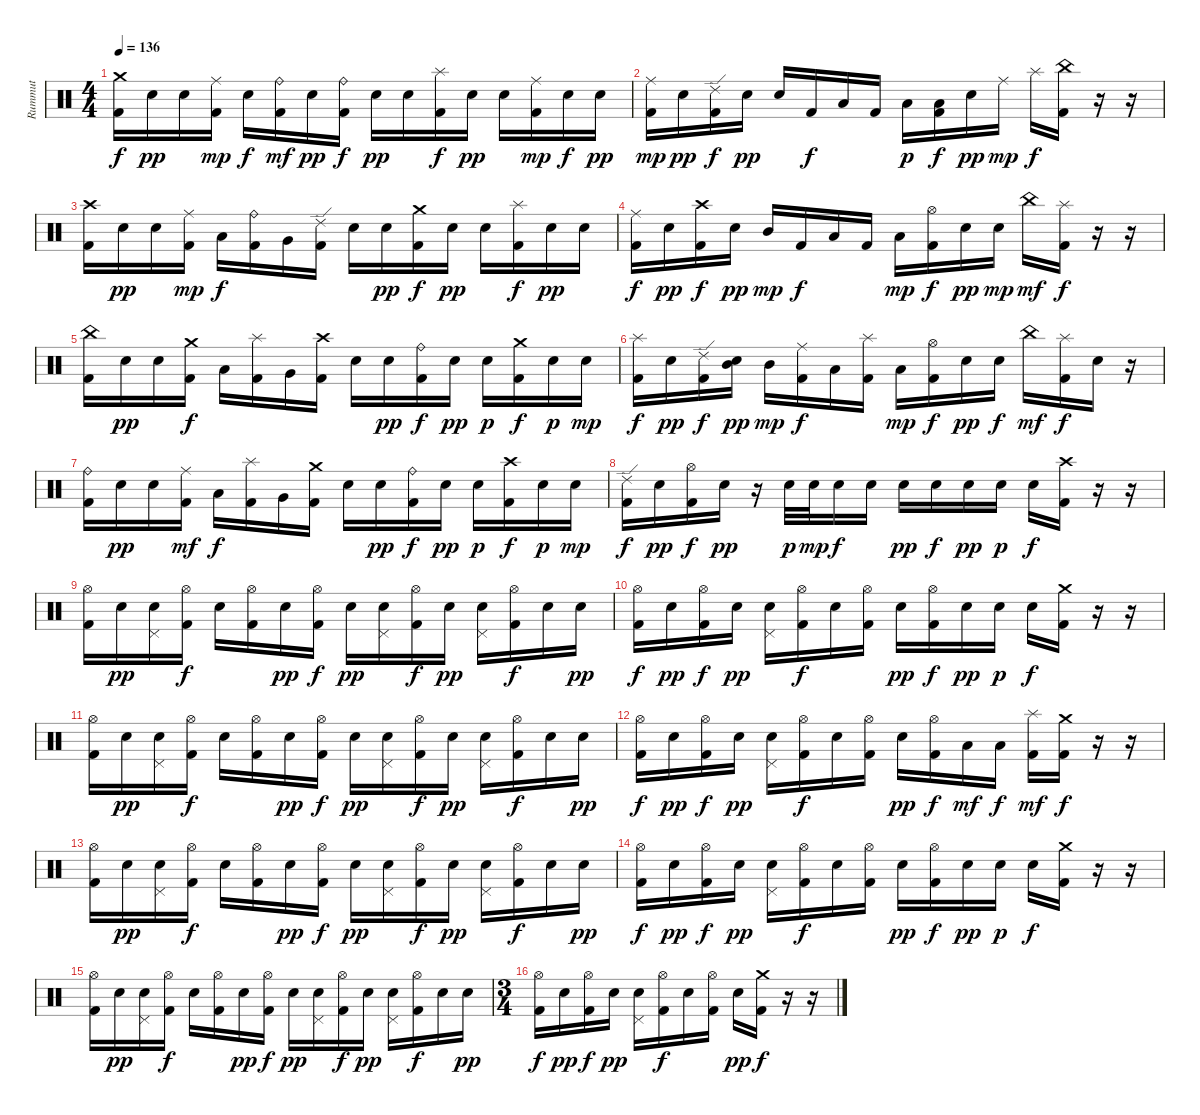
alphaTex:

\track ("Rummut" "Rummut") {instrument percussion}
\staff {score}
\articulation defaults
\ts (4 4)
\tempo 136
\clef neutral
\ks c
("Crash medium (hit)" "Kick (hit) 2").16{dy f} "Electric Snare (hit)".16{dy pp} "Electric Snare (hit)".16 ("Ride (middle)" "Kick (hit) 2").16{dy mp} "Electric Snare (hit)".16{dy f} ("Ride (bell)" "Kick (hit) 2").16{dy mf} "Electric Snare (hit)".16{dy pp} ("Ride (bell)" "Kick (hit) 2").16{dy f} "Electric Snare (hit)".16{dy pp} "Electric Snare (hit)".16 ("Splash (hit)" "Kick (hit) 2").16{dy f} "Electric Snare (hit)".16{dy pp} "Electric Snare (hit)".16 ("Ride (middle)" "Kick (hit) 2").16{dy mp} "Electric Snare (hit)".16{dy f} "Electric Snare (hit)".16{dy pp} |
("Ride (middle)" "Kick (hit) 2").16{dy mp} "Electric Snare (hit)".16{dy pp} ("Ride (edge) 2" "Kick (hit) 2").16{dy f} "Electric Snare (hit)".16{dy pp} "Electric Snare (hit)".16 "Kick (hit) 2".16{dy f} "Low Tom (hit)".16 "Kick (hit) 2".16 "Low Tom (hit)".16{dy p} ("Low Tom (hit)" "Kick (hit) 2").16{dy f} "Electric Snare (hit)".16{dy pp} "Ride (middle)".16{dy mp} "Splash (hit)".16{dy f} ("China (hit)" "Kick (hit) 2").16 r.16 r.16 |
("Crash high (hit)" "Kick (hit) 2").16 "Electric Snare (hit)".16{dy pp} "Electric Snare (hit)".16 ("Ride (middle)" "Kick (hit) 2").16{dy mp} "Low Tom (hit)".16{dy f} ("Ride (bell)" "Kick (hit) 2").16 "Very Low Tom (hit)".16 ("Ride (edge) 2" "Kick (hit) 2").16 "Electric Snare (hit)".16 "Electric Snare (hit)".16{dy pp} ("Crash medium (hit)" "Kick (hit) 2").16{dy f} "Electric Snare (hit)".16{dy pp} "Electric Snare (hit)".16 ("Splash (hit)" "Kick (hit) 2").16{dy f} "Electric Snare (hit)".16{dy pp} "Electric Snare (hit)".16 |
("Ride (middle)" "Kick (hit) 2").16{dy f} "Electric Snare (hit)".16{dy pp} ("Crash high (hit)" "Kick (hit) 2").16{dy f} "Electric Snare (hit)".16{dy pp} "Mid Tom (hit)".16{dy mp} "Kick (hit) 2".16{dy f} "Low Tom (hit)".16 "Kick (hit) 2".16 "Low Tom (hit)".16{dy mp} ("Hi-Hat (open)" "Kick (hit) 2").16{dy f} "Electric Snare (hit)".16{dy pp} "Electric Snare (hit)".16{dy mp} "China (hit)".16{dy mf} ("Splash (hit)" "Kick (hit) 2").16{dy f} r.16 r.16 |
("China (hit)" "Kick (hit) 2").16 "Electric Snare (hit)".16{dy pp} "Electric Snare (hit)".16 ("Crash medium (hit)" "Kick (hit) 2").16{dy f} "Low Tom (hit)".16 ("Splash (hit)" "Kick (hit) 2").16 "Very Low Tom (hit)".16 ("Crash high (hit)" "Kick (hit) 2").16 "Electric Snare (hit)".16 "Electric Snare (hit)".16{dy pp} ("Ride (bell)" "Kick (hit) 2").16{dy f} "Electric Snare (hit)".16{dy pp} "Electric Snare (hit)".16{dy p} ("Crash medium (hit)" "Kick (hit) 2").16{dy f} "Electric Snare (hit)".16{dy p} "Electric Snare (hit)".16{dy mp} |
("Splash (hit)" "Kick (hit) 2").16{dy f} "Electric Snare (hit)".16{dy pp} ("Ride (edge) 2" "Kick (hit) 2").16{dy f} ("Mid Tom (hit)" "Electric Snare (hit)").16{dy pp} "Mid Tom (hit)".16{dy mp} ("Ride (middle)" "Kick (hit) 2").16{dy f} "Low Tom (hit)".16 ("Splash (hit)" "Kick (hit) 2").16 "Low Tom (hit)".16{dy mp} ("Hi-Hat (open)" "Kick (hit) 2").16{dy f} "Electric Snare (hit)".16{dy pp} "Electric Snare (hit)".16{dy f} "China (hit)".16{dy mf} ("Splash (hit)" "Kick (hit) 2").16{dy f} "Electric Snare (hit)".16 r.16 |
("Ride (bell)" "Kick (hit) 2").16 "Electric Snare (hit)".16{dy pp} "Electric Snare (hit)".16 ("Ride (middle)" "Kick (hit) 2").16{dy mf} "Low Tom (hit)".16{dy f} ("Splash (hit)" "Kick (hit) 2").16 "Very Low Tom (hit)".16 ("Crash medium (hit)" "Kick (hit) 2").16 "Electric Snare (hit)".16 "Electric Snare (hit)".16{dy pp} ("Ride (bell)" "Kick (hit) 2").16{dy f} "Electric Snare (hit)".16{dy pp} "Electric Snare (hit)".16{dy p} ("Crash high (hit)" "Kick (hit) 2").16{dy f} "Electric Snare (hit)".16{dy p} "Electric Snare (hit)".16{dy mp} |
("Ride (edge) 2" "Kick (hit) 2").16{dy f} "Electric Snare (hit)".16{dy pp} ("Hi-Hat (open)" "Kick (hit) 2").16{dy f} "Electric Snare (hit)".16{dy pp} r.16 "Electric Snare (hit)".32{dy p} "Electric Snare (hit)".32{dy mp} "Electric Snare (hit)".16{dy f} "Electric Snare (hit)".16 "Electric Snare (hit)".16{dy pp} "Electric Snare (hit)".16{dy f} "Electric Snare (hit)".16{dy pp} "Electric Snare (hit)".16{dy p} "Electric Snare (hit)".16{dy f} ("Crash high (hit)" "Kick (hit) 2").16 r.16 r.16 |
("Hi-Hat (open)" "Kick (hit) 2").16 "Electric Snare (hit)".16{dy pp} ("Pedal Hi-Hat (hit)" "Electric Snare (hit)").16 ("Hi-Hat (open)" "Kick (hit) 2").16{dy f} "Electric Snare (hit)".16 ("Hi-Hat (open)" "Kick (hit) 2").16 "Electric Snare (hit)".16{dy pp} ("Hi-Hat (open)" "Kick (hit) 2").16{dy f} "Electric Snare (hit)".16{dy pp} ("Pedal Hi-Hat (hit)" "Electric Snare (hit)").16 ("Hi-Hat (open)" "Kick (hit) 2").16{dy f} "Electric Snare (hit)".16{dy pp} ("Pedal Hi-Hat (hit)" "Electric Snare (hit)").16 ("Hi-Hat (open)" "Kick (hit) 2").16{dy f} "Electric Snare (hit)".16 "Electric Snare (hit)".16{dy pp} |
("Hi-Hat (open)" "Kick (hit) 2").16{dy f} "Electric Snare (hit)".16{dy pp} ("Hi-Hat (open)" "Kick (hit) 2").16{dy f} "Electric Snare (hit)".16{dy pp} ("Pedal Hi-Hat (hit)" "Electric Snare (hit)").16 ("Hi-Hat (open)" "Kick (hit) 2").16{dy f} "Electric Snare (hit)".16 ("Hi-Hat (open)" "Kick (hit) 2").16 "Electric Snare (hit)".16{dy pp} ("Hi-Hat (open)" "Kick (hit) 2").16{dy f} "Electric Snare (hit)".16{dy pp} "Electric Snare (hit)".16{dy p} "Electric Snare (hit)".16{dy f} ("Crash medium (hit)" "Kick (hit) 2").16 r.16 r.16 |
("Hi-Hat (open)" "Kick (hit) 2").16 "Electric Snare (hit)".16{dy pp} ("Pedal Hi-Hat (hit)" "Electric Snare (hit)").16 ("Hi-Hat (open)" "Kick (hit) 2").16{dy f} "Electric Snare (hit)".16 ("Hi-Hat (open)" "Kick (hit) 2").16 "Electric Snare (hit)".16{dy pp} ("Hi-Hat (open)" "Kick (hit) 2").16{dy f} "Electric Snare (hit)".16{dy pp} ("Pedal Hi-Hat (hit)" "Electric Snare (hit)").16 ("Hi-Hat (open)" "Kick (hit) 2").16{dy f} "Electric Snare (hit)".16{dy pp} ("Pedal Hi-Hat (hit)" "Electric Snare (hit)").16 ("Hi-Hat (open)" "Kick (hit) 2").16{dy f} "Electric Snare (hit)".16 "Electric Snare (hit)".16{dy pp} |
("Hi-Hat (open)" "Kick (hit) 2").16{dy f} "Electric Snare (hit)".16{dy pp} ("Hi-Hat (open)" "Kick (hit) 2").16{dy f} "Electric Snare (hit)".16{dy pp} ("Pedal Hi-Hat (hit)" "Electric Snare (hit)").16 ("Hi-Hat (open)" "Kick (hit) 2").16{dy f} "Electric Snare (hit)".16 ("Hi-Hat (open)" "Kick (hit) 2").16 "Electric Snare (hit)".16{dy pp} ("Hi-Hat (open)" "Kick (hit) 2").16{dy f} "Low Tom (hit)".16{dy mf} "Low Tom (hit)".16{dy f} ("Splash (hit)" "Kick (hit) 2").16{dy mf} ("Crash medium (hit)" "Kick (hit) 2").16{dy f} r.16 r.16 |
("Hi-Hat (open)" "Kick (hit) 2").16 "Electric Snare (hit)".16{dy pp} ("Pedal Hi-Hat (hit)" "Electric Snare (hit)").16 ("Hi-Hat (open)" "Kick (hit) 2").16{dy f} "Electric Snare (hit)".16 ("Hi-Hat (open)" "Kick (hit) 2").16 "Electric Snare (hit)".16{dy pp} ("Hi-Hat (open)" "Kick (hit) 2").16{dy f} "Electric Snare (hit)".16{dy pp} ("Pedal Hi-Hat (hit)" "Electric Snare (hit)").16 ("Hi-Hat (open)" "Kick (hit) 2").16{dy f} "Electric Snare (hit)".16{dy pp} ("Pedal Hi-Hat (hit)" "Electric Snare (hit)").16 ("Hi-Hat (open)" "Kick (hit) 2").16{dy f} "Electric Snare (hit)".16 "Electric Snare (hit)".16{dy pp} |
("Hi-Hat (open)" "Kick (hit) 2").16{dy f} "Electric Snare (hit)".16{dy pp} ("Hi-Hat (open)" "Kick (hit) 2").16{dy f} "Electric Snare (hit)".16{dy pp} ("Pedal Hi-Hat (hit)" "Electric Snare (hit)").16 ("Hi-Hat (open)" "Kick (hit) 2").16{dy f} "Electric Snare (hit)".16 ("Hi-Hat (open)" "Kick (hit) 2").16 "Electric Snare (hit)".16{dy pp} ("Hi-Hat (open)" "Kick (hit) 2").16{dy f} "Electric Snare (hit)".16{dy pp} "Electric Snare (hit)".16{dy p} "Electric Snare (hit)".16{dy f} ("Crash medium (hit)" "Kick (hit) 2").16 r.16 r.16 |
("Hi-Hat (open)" "Kick (hit) 2").16 "Electric Snare (hit)".16{dy pp} ("Pedal Hi-Hat (hit)" "Electric Snare (hit)").16 ("Hi-Hat (open)" "Kick (hit) 2").16{dy f} "Electric Snare (hit)".16 ("Hi-Hat (open)" "Kick (hit) 2").16 "Electric Snare (hit)".16{dy pp} ("Hi-Hat (open)" "Kick (hit) 2").16{dy f} "Electric Snare (hit)".16{dy pp} ("Pedal Hi-Hat (hit)" "Electric Snare (hit)").16 ("Hi-Hat (open)" "Kick (hit) 2").16{dy f} "Electric Snare (hit)".16{dy pp} ("Pedal Hi-Hat (hit)" "Electric Snare (hit)").16 ("Hi-Hat (open)" "Kick (hit) 2").16{dy f} "Electric Snare (hit)".16 "Electric Snare (hit)".16{dy pp} |
\ts (3 4)
("Hi-Hat (open)" "Kick (hit) 2").16{dy f} "Electric Snare (hit)".16{dy pp} ("Hi-Hat (open)" "Kick (hit) 2").16{dy f} "Electric Snare (hit)".16{dy pp} ("Pedal Hi-Hat (hit)" "Electric Snare (hit)").16 ("Hi-Hat (open)" "Kick (hit) 2").16{dy f} "Electric Snare (hit)".16 ("Hi-Hat (open)" "Kick (hit) 2").16 "Electric Snare (hit)".16{dy pp} ("Crash medium (hit)" "Kick (hit) 2").16{dy f} r.16 r.16
